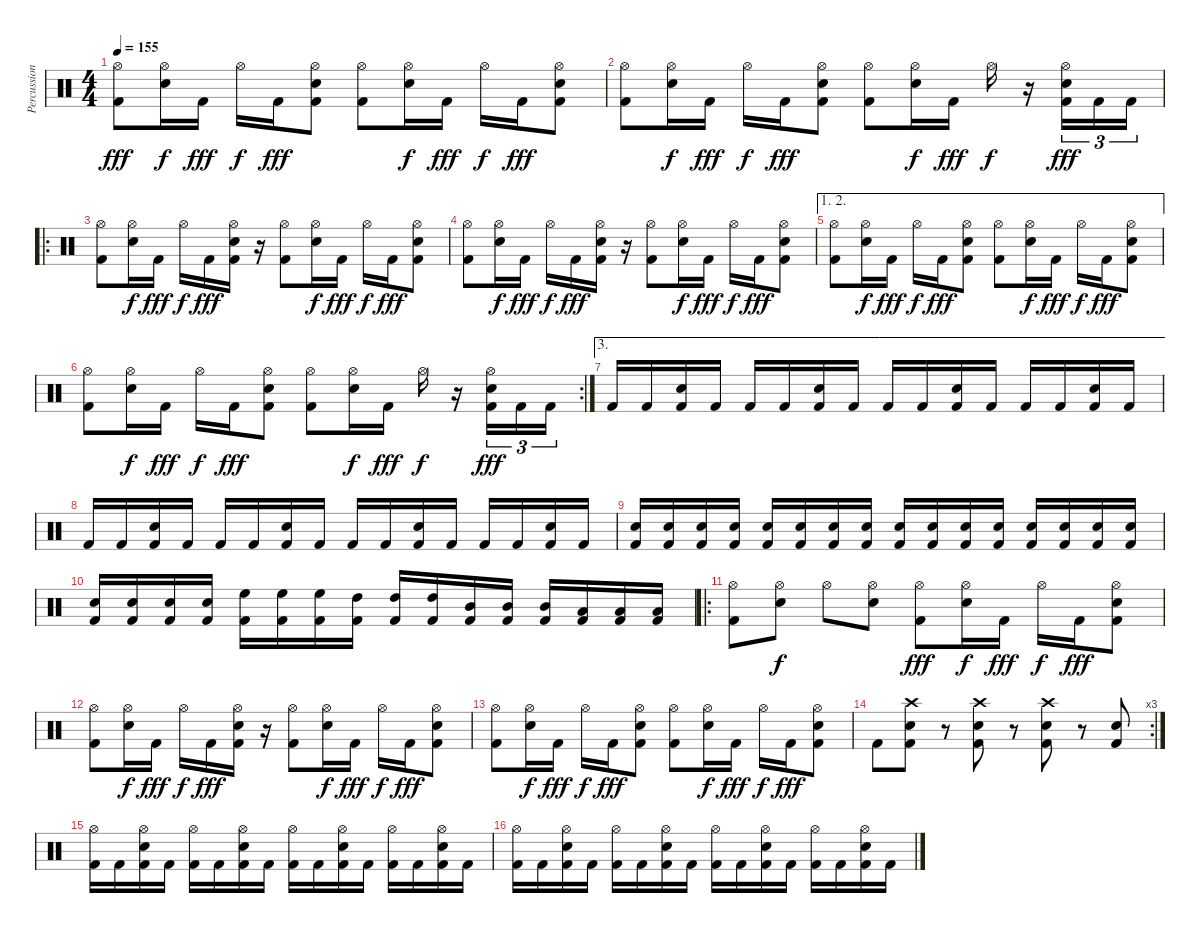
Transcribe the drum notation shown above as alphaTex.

\track ("Percussion" "Percussion") {instrument percussion}
\staff {score}
\articulation defaults
\ts (4 4)
\tempo 155
\clef neutral
\ks c
("Hi-Hat (open)" "Kick (hit) 2").8{dy fff} ("Hi-Hat (open)" "Snare (hit) 2").16{dy f} "Kick (hit) 2".16{dy fff} "Hi-Hat (open)".16{dy f} "Kick (hit) 2".16{dy fff} ("Hi-Hat (open)" "Snare (hit) 2" "Kick (hit) 2").8 ("Hi-Hat (open)" "Kick (hit) 2").8 ("Hi-Hat (open)" "Snare (hit) 2").16{dy f} "Kick (hit) 2".16{dy fff} "Hi-Hat (open)".16{dy f} "Kick (hit) 2".16{dy fff} ("Hi-Hat (open)" "Snare (hit) 2" "Kick (hit) 2").8 |
("Hi-Hat (open)" "Kick (hit) 2").8 ("Hi-Hat (open)" "Snare (hit) 2").16{dy f} "Kick (hit) 2".16{dy fff} "Hi-Hat (open)".16{dy f} "Kick (hit) 2".16{dy fff} ("Hi-Hat (open)" "Snare (hit) 2" "Kick (hit) 2").8 ("Hi-Hat (open)" "Kick (hit) 2").8 ("Hi-Hat (open)" "Snare (hit) 2").16{dy f} "Kick (hit) 2".16{dy fff} "Hi-Hat (open)".16{dy f} r.16 ("Hi-Hat (open)" "Snare (hit) 2" "Kick (hit) 2").16{tu (3 2) dy fff} "Kick (hit) 2".16{tu (3 2)} "Kick (hit) 2".16{tu (3 2)} |
\ro
("Hi-Hat (open)" "Kick (hit) 2").8 ("Hi-Hat (open)" "Snare (hit) 2").16{dy f} "Kick (hit) 2".16{dy fff} "Hi-Hat (open)".16{dy f} "Kick (hit) 2".16{dy fff} ("Hi-Hat (open)" "Snare (hit) 2" "Kick (hit) 2").16 r.16 ("Hi-Hat (open)" "Kick (hit) 2").8 ("Hi-Hat (open)" "Snare (hit) 2").16{dy f} "Kick (hit) 2".16{dy fff} "Hi-Hat (open)".16{dy f} "Kick (hit) 2".16{dy fff} ("Hi-Hat (open)" "Snare (hit) 2" "Kick (hit) 2").8 |
("Hi-Hat (open)" "Kick (hit) 2").8 ("Hi-Hat (open)" "Snare (hit) 2").16{dy f} "Kick (hit) 2".16{dy fff} "Hi-Hat (open)".16{dy f} "Kick (hit) 2".16{dy fff} ("Hi-Hat (open)" "Snare (hit) 2" "Kick (hit) 2").16 r.16 ("Hi-Hat (open)" "Kick (hit) 2").8 ("Hi-Hat (open)" "Snare (hit) 2").16{dy f} "Kick (hit) 2".16{dy fff} "Hi-Hat (open)".16{dy f} "Kick (hit) 2".16{dy fff} ("Hi-Hat (open)" "Snare (hit) 2" "Kick (hit) 2").8 |
\ae (1 2)
("Hi-Hat (open)" "Kick (hit) 2").8 ("Hi-Hat (open)" "Snare (hit) 2").16{dy f} "Kick (hit) 2".16{dy fff} "Hi-Hat (open)".16{dy f} "Kick (hit) 2".16{dy fff} ("Hi-Hat (open)" "Snare (hit) 2" "Kick (hit) 2").8 ("Hi-Hat (open)" "Kick (hit) 2").8 ("Hi-Hat (open)" "Snare (hit) 2").16{dy f} "Kick (hit) 2".16{dy fff} "Hi-Hat (open)".16{dy f} "Kick (hit) 2".16{dy fff} ("Hi-Hat (open)" "Snare (hit) 2" "Kick (hit) 2").8 |
\rc 2
("Hi-Hat (open)" "Kick (hit) 2").8 ("Hi-Hat (open)" "Snare (hit) 2").16{dy f} "Kick (hit) 2".16{dy fff} "Hi-Hat (open)".16{dy f} "Kick (hit) 2".16{dy fff} ("Hi-Hat (open)" "Snare (hit) 2" "Kick (hit) 2").8 ("Hi-Hat (open)" "Kick (hit) 2").8 ("Hi-Hat (open)" "Snare (hit) 2").16{dy f} "Kick (hit) 2".16{dy fff} "Hi-Hat (open)".16{dy f} r.16 ("Hi-Hat (open)" "Snare (hit) 2" "Kick (hit) 2").16{tu (3 2) dy fff} "Kick (hit) 2".16{tu (3 2)} "Kick (hit) 2".16{tu (3 2)} |
\ae 3 "Kick (hit) 2".16 "Kick (hit) 2".16
("Snare (hit) 2" "Kick (hit) 2").16 "Kick (hit) 2".16 "Kick (hit) 2".16 "Kick (hit) 2".16 ("Snare (hit) 2" "Kick (hit) 2").16 "Kick (hit) 2".16 "Kick (hit) 2".16 "Kick (hit) 2".16 ("Snare (hit) 2" "Kick (hit) 2").16 "Kick (hit) 2".16 "Kick (hit) 2".16 "Kick (hit) 2".16 ("Snare (hit) 2" "Kick (hit) 2").16 "Kick (hit) 2".16 |
"Kick (hit) 2".16 "Kick (hit) 2".16 ("Snare (hit) 2" "Kick (hit) 2").16 "Kick (hit) 2".16 "Kick (hit) 2".16 "Kick (hit) 2".16 ("Snare (hit) 2" "Kick (hit) 2").16 "Kick (hit) 2".16 "Kick (hit) 2".16 "Kick (hit) 2".16 ("Snare (hit) 2" "Kick (hit) 2").16 "Kick (hit) 2".16 "Kick (hit) 2".16 "Kick (hit) 2".16 ("Snare (hit) 2" "Kick (hit) 2").16 "Kick (hit) 2".16 |
("Snare (hit) 2" "Kick (hit) 2").16 ("Snare (hit) 2" "Kick (hit) 2").16 ("Snare (hit) 2" "Kick (hit) 2").16 ("Snare (hit) 2" "Kick (hit) 2").16 ("Snare (hit) 2" "Kick (hit) 2").16 ("Snare (hit) 2" "Kick (hit) 2").16 ("Snare (hit) 2" "Kick (hit) 2").16 ("Snare (hit) 2" "Kick (hit) 2").16 ("Snare (hit) 2" "Kick (hit) 2").16 ("Snare (hit) 2" "Kick (hit) 2").16 ("Snare (hit) 2" "Kick (hit) 2").16 ("Snare (hit) 2" "Kick (hit) 2").16 ("Snare (hit) 2" "Kick (hit) 2").16 ("Snare (hit) 2" "Kick (hit) 2").16 ("Snare (hit) 2" "Kick (hit) 2").16 ("Snare (hit) 2" "Kick (hit) 2").16 |
("Snare (hit) 2" "Kick (hit) 2").16 ("Snare (hit) 2" "Kick (hit) 2").16 ("Snare (hit) 2" "Kick (hit) 2").16 ("Snare (hit) 2" "Kick (hit) 2").16 ("High Floor Tom (hit)" "Kick (hit) 2").16 ("High Floor Tom (hit)" "Kick (hit) 2").16 ("High Floor Tom (hit)" "Kick (hit) 2").16 ("High Tom (hit)" "Kick (hit) 2").16 ("High Tom (hit)" "Kick (hit) 2").16 ("High Tom (hit)" "Kick (hit) 2").16 ("Mid Tom (hit)" "Kick (hit) 2").16 ("Mid Tom (hit)" "Kick (hit) 2").16 ("Mid Tom (hit)" "Kick (hit) 2").16 ("Low Tom (hit)" "Kick (hit) 2").16 ("Low Tom (hit)" "Kick (hit) 2").16 ("Low Tom (hit)" "Kick (hit) 2").16 |
\ro
("Hi-Hat (open)" "Kick (hit) 2").8 ("Hi-Hat (open)" "Snare (hit) 2").8{dy f} "Hi-Hat (open)".8 ("Hi-Hat (open)" "Snare (hit) 2").8 ("Hi-Hat (open)" "Kick (hit) 2").8{dy fff} ("Hi-Hat (open)" "Snare (hit) 2").16{dy f} "Kick (hit) 2".16{dy fff} "Hi-Hat (open)".16{dy f} "Kick (hit) 2".16{dy fff} ("Hi-Hat (open)" "Snare (hit) 2" "Kick (hit) 2").8 |
("Hi-Hat (open)" "Kick (hit) 2").8 ("Hi-Hat (open)" "Snare (hit) 2").16{dy f} "Kick (hit) 2".16{dy fff} "Hi-Hat (open)".16{dy f} "Kick (hit) 2".16{dy fff} ("Hi-Hat (open)" "Snare (hit) 2" "Kick (hit) 2").16 r.16 ("Hi-Hat (open)" "Kick (hit) 2").8 ("Hi-Hat (open)" "Snare (hit) 2").16{dy f} "Kick (hit) 2".16{dy fff} "Hi-Hat (open)".16{dy f} "Kick (hit) 2".16{dy fff} ("Hi-Hat (open)" "Snare (hit) 2" "Kick (hit) 2").8 |
("Hi-Hat (open)" "Kick (hit) 2").8 ("Hi-Hat (open)" "Snare (hit) 2").16{dy f} "Kick (hit) 2".16{dy fff} "Hi-Hat (open)".16{dy f} "Kick (hit) 2".16{dy fff} ("Hi-Hat (open)" "Snare (hit) 2" "Kick (hit) 2").8 ("Hi-Hat (open)" "Kick (hit) 2").8 ("Hi-Hat (open)" "Snare (hit) 2").16{dy f} "Kick (hit) 2".16{dy fff} "Hi-Hat (open)".16{dy f} "Kick (hit) 2".16{dy fff} ("Hi-Hat (open)" "Snare (hit) 2" "Kick (hit) 2").8 |
\rc 3 "Kick (hit) 2".8
("Crash high (hit)" "Snare (hit) 2" "Kick (hit) 2").8 r.8 ("Crash high (hit)" "Snare (hit) 2" "Kick (hit) 2").8 r.8 ("Crash high (hit)" "Snare (hit) 2" "Kick (hit) 2").8 r.8 ("Snare (hit) 2" "Kick (hit) 2").8 |
("Hi-Hat (open)" "Kick (hit) 2").16 "Kick (hit) 2".16 ("Hi-Hat (open)" "Snare (hit) 2" "Kick (hit) 2").16 "Kick (hit) 2".16 ("Hi-Hat (open)" "Kick (hit) 2").16 "Kick (hit) 2".16 ("Hi-Hat (open)" "Snare (hit) 2" "Kick (hit) 2").16 "Kick (hit) 2".16 ("Hi-Hat (open)" "Kick (hit) 2").16 "Kick (hit) 2".16 ("Hi-Hat (open)" "Snare (hit) 2" "Kick (hit) 2").16 "Kick (hit) 2".16 ("Hi-Hat (open)" "Kick (hit) 2").16 "Kick (hit) 2".16 ("Hi-Hat (open)" "Snare (hit) 2" "Kick (hit) 2").16 "Kick (hit) 2".16 |
("Hi-Hat (open)" "Kick (hit) 2").16 "Kick (hit) 2".16 ("Hi-Hat (open)" "Snare (hit) 2" "Kick (hit) 2").16 "Kick (hit) 2".16 ("Hi-Hat (open)" "Kick (hit) 2").16 "Kick (hit) 2".16 ("Hi-Hat (open)" "Snare (hit) 2" "Kick (hit) 2").16 "Kick (hit) 2".16 ("Hi-Hat (open)" "Kick (hit) 2").16 "Kick (hit) 2".16 ("Hi-Hat (open)" "Snare (hit) 2" "Kick (hit) 2").16 "Kick (hit) 2".16 ("Hi-Hat (open)" "Kick (hit) 2").16 "Kick (hit) 2".16 ("Hi-Hat (open)" "Snare (hit) 2" "Kick (hit) 2").16 "Kick (hit) 2".16
